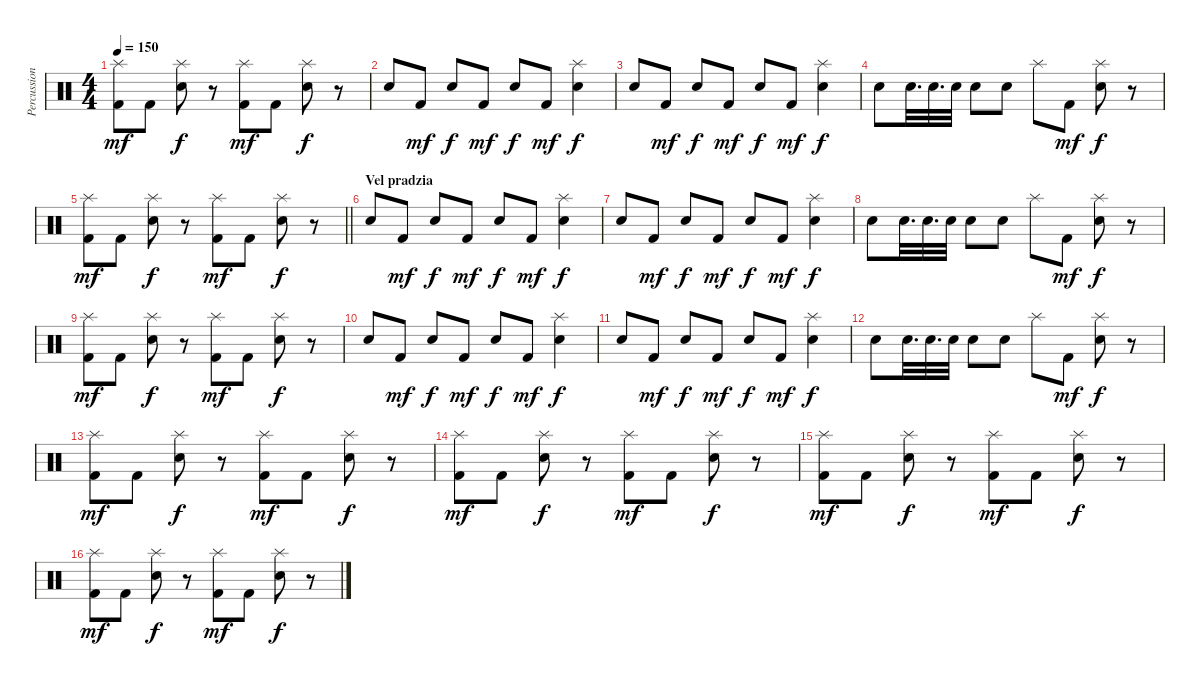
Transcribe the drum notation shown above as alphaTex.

\track ("Percussion" "Percussion") {instrument percussion}
\staff {score}
\articulation defaults
\ts (4 4)
\tempo 150
\clef neutral
\ks c
("Splash (hit)" "Kick (hit) 2").8{dy mf} "Kick (hit) 2".8 ("Splash (hit)" "Snare (hit) 2").8{dy f} r.8 ("Splash (hit)" "Kick (hit) 2").8{dy mf} "Kick (hit) 2".8 ("Splash (hit)" "Snare (hit) 2").8{dy f} r.8 |
"Snare (hit) 2".8 "Kick (hit) 2".8{dy mf} "Snare (hit) 2".8{dy f} "Kick (hit) 2".8{dy mf} "Snare (hit) 2".8{dy f} "Kick (hit) 2".8{dy mf} ("Splash (hit)" "Snare (hit) 2").4{dy f} |
"Snare (hit) 2".8 "Kick (hit) 2".8{dy mf} "Snare (hit) 2".8{dy f} "Kick (hit) 2".8{dy mf} "Snare (hit) 2".8{dy f} "Kick (hit) 2".8{dy mf} ("Splash (hit)" "Snare (hit) 2").4{dy f} |
"Snare (hit) 2".8 "Snare (hit) 2".32{d} "Snare (hit) 2".32{d} "Snare (hit) 2".32 "Snare (hit) 2".8 "Snare (hit) 2".8 "Splash (hit)".8 "Kick (hit) 2".8{dy mf} ("Splash (hit)" "Snare (hit) 2").8{dy f} r.8 |
\barLineRight lightlight
("Splash (hit)" "Kick (hit) 2").8{dy mf} "Kick (hit) 2".8 ("Splash (hit)" "Snare (hit) 2").8{dy f} r.8 ("Splash (hit)" "Kick (hit) 2").8{dy mf} "Kick (hit) 2".8 ("Splash (hit)" "Snare (hit) 2").8{dy f} r.8 |
\section ("" "Vel pradzia")
"Snare (hit) 2".8 "Kick (hit) 2".8{dy mf} "Snare (hit) 2".8{dy f} "Kick (hit) 2".8{dy mf} "Snare (hit) 2".8{dy f} "Kick (hit) 2".8{dy mf} ("Splash (hit)" "Snare (hit) 2").4{dy f} |
"Snare (hit) 2".8 "Kick (hit) 2".8{dy mf} "Snare (hit) 2".8{dy f} "Kick (hit) 2".8{dy mf} "Snare (hit) 2".8{dy f} "Kick (hit) 2".8{dy mf} ("Splash (hit)" "Snare (hit) 2").4{dy f} |
"Snare (hit) 2".8 "Snare (hit) 2".32{d} "Snare (hit) 2".32{d} "Snare (hit) 2".32 "Snare (hit) 2".8 "Snare (hit) 2".8 "Splash (hit)".8 "Kick (hit) 2".8{dy mf} ("Splash (hit)" "Snare (hit) 2").8{dy f} r.8 |
("Splash (hit)" "Kick (hit) 2").8{dy mf} "Kick (hit) 2".8 ("Splash (hit)" "Snare (hit) 2").8{dy f} r.8 ("Splash (hit)" "Kick (hit) 2").8{dy mf} "Kick (hit) 2".8 ("Splash (hit)" "Snare (hit) 2").8{dy f} r.8 |
"Snare (hit) 2".8 "Kick (hit) 2".8{dy mf} "Snare (hit) 2".8{dy f} "Kick (hit) 2".8{dy mf} "Snare (hit) 2".8{dy f} "Kick (hit) 2".8{dy mf} ("Splash (hit)" "Snare (hit) 2").4{dy f} |
"Snare (hit) 2".8 "Kick (hit) 2".8{dy mf} "Snare (hit) 2".8{dy f} "Kick (hit) 2".8{dy mf} "Snare (hit) 2".8{dy f} "Kick (hit) 2".8{dy mf} ("Splash (hit)" "Snare (hit) 2").4{dy f} |
"Snare (hit) 2".8 "Snare (hit) 2".32{d} "Snare (hit) 2".32{d} "Snare (hit) 2".32 "Snare (hit) 2".8 "Snare (hit) 2".8 "Splash (hit)".8 "Kick (hit) 2".8{dy mf} ("Splash (hit)" "Snare (hit) 2").8{dy f} r.8 |
("Splash (hit)" "Kick (hit) 2").8{dy mf} "Kick (hit) 2".8 ("Splash (hit)" "Snare (hit) 2").8{dy f} r.8 ("Splash (hit)" "Kick (hit) 2").8{dy mf} "Kick (hit) 2".8 ("Splash (hit)" "Snare (hit) 2").8{dy f} r.8 |
("Splash (hit)" "Kick (hit) 2").8{dy mf} "Kick (hit) 2".8 ("Splash (hit)" "Snare (hit) 2").8{dy f} r.8 ("Splash (hit)" "Kick (hit) 2").8{dy mf} "Kick (hit) 2".8 ("Splash (hit)" "Snare (hit) 2").8{dy f} r.8 |
("Splash (hit)" "Kick (hit) 2").8{dy mf} "Kick (hit) 2".8 ("Splash (hit)" "Snare (hit) 2").8{dy f} r.8 ("Splash (hit)" "Kick (hit) 2").8{dy mf} "Kick (hit) 2".8 ("Splash (hit)" "Snare (hit) 2").8{dy f} r.8 |
("Splash (hit)" "Kick (hit) 2").8{dy mf} "Kick (hit) 2".8 ("Splash (hit)" "Snare (hit) 2").8{dy f} r.8 ("Splash (hit)" "Kick (hit) 2").8{dy mf} "Kick (hit) 2".8 ("Splash (hit)" "Snare (hit) 2").8{dy f} r.8
